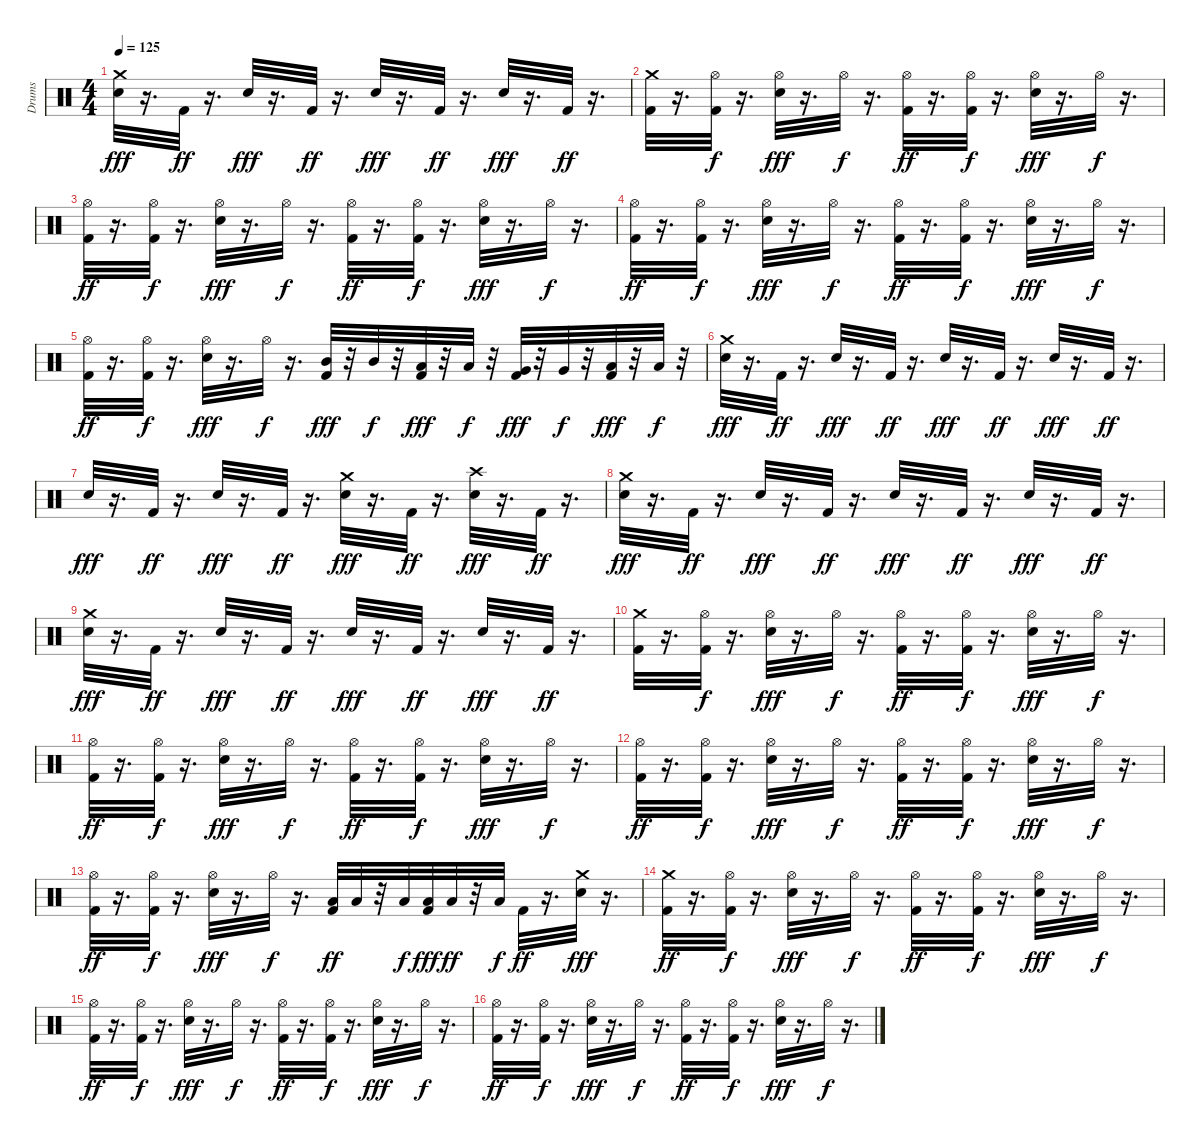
\track ("Drums" "Drums") {instrument percussion}
\staff {score}
\articulation defaults
\ts (4 4)
\tempo 125
\clef neutral
\ks c
("Snare (hit) 2" "Crash medium (hit)").32{dy fff} r.16{d} "Kick (hit) 2".32{dy ff} r.16{d} "Snare (hit) 2".32{dy fff} r.16{d} "Kick (hit) 2".32{dy ff} r.16{d} "Snare (hit) 2".32{dy fff} r.16{d} "Kick (hit) 2".32{dy ff} r.16{d} "Snare (hit) 2".32{dy fff} r.16{d} "Kick (hit) 2".32{dy ff} r.16{d} |
("Crash medium (hit)" "Kick (hit) 2").32 r.16{d} ("Kick (hit) 2" "Hi-Hat (open)").32{dy f} r.16{d} ("Snare (hit) 2" "Hi-Hat (open)").32{dy fff} r.16{d} "Hi-Hat (open)".32{dy f} r.16{d} ("Kick (hit) 2" "Hi-Hat (open)").32{dy ff} r.16{d} ("Kick (hit) 2" "Hi-Hat (open)").32{dy f} r.16{d} ("Snare (hit) 2" "Hi-Hat (open)").32{dy fff} r.16{d} "Hi-Hat (open)".32{dy f} r.16{d} |
("Kick (hit) 2" "Hi-Hat (open)").32{dy ff} r.16{d} ("Kick (hit) 2" "Hi-Hat (open)").32{dy f} r.16{d} ("Snare (hit) 2" "Hi-Hat (open)").32{dy fff} r.16{d} "Hi-Hat (open)".32{dy f} r.16{d} ("Kick (hit) 2" "Hi-Hat (open)").32{dy ff} r.16{d} ("Kick (hit) 2" "Hi-Hat (open)").32{dy f} r.16{d} ("Snare (hit) 2" "Hi-Hat (open)").32{dy fff} r.16{d} "Hi-Hat (open)".32{dy f} r.16{d} |
("Kick (hit) 2" "Hi-Hat (open)").32{dy ff} r.16{d} ("Kick (hit) 2" "Hi-Hat (open)").32{dy f} r.16{d} ("Snare (hit) 2" "Hi-Hat (open)").32{dy fff} r.16{d} "Hi-Hat (open)".32{dy f} r.16{d} ("Kick (hit) 2" "Hi-Hat (open)").32{dy ff} r.16{d} ("Kick (hit) 2" "Hi-Hat (open)").32{dy f} r.16{d} ("Snare (hit) 2" "Hi-Hat (open)").32{dy fff} r.16{d} "Hi-Hat (open)".32{dy f} r.16{d} |
("Kick (hit) 2" "Hi-Hat (open)").32{dy ff} r.16{d} ("Kick (hit) 2" "Hi-Hat (open)").32{dy f} r.16{d} ("Snare (hit) 2" "Hi-Hat (open)").32{dy fff} r.16{d} "Hi-Hat (open)".32{dy f} r.16{d} ("Kick (hit) 2" "Mid Tom (hit)").32{dy fff} r.32 "Mid Tom (hit)".32{dy f} r.32 ("Kick (hit) 2" "Low Tom (hit)").32{dy fff} r.32 "Low Tom (hit)".32{dy f} r.32 ("Kick (hit) 2" "Very Low Tom (hit)").32{dy fff} r.32 "Very Low Tom (hit)".32{dy f} r.32 ("Kick (hit) 2" "Low Floor Tom (hit)").32{dy fff} r.32 "Low Floor Tom (hit)".32{dy f} r.32 |
("Crash medium (hit)" "Snare (hit) 2").32{dy fff} r.16{d} "Kick (hit) 2".32{dy ff} r.16{d} "Snare (hit) 2".32{dy fff} r.16{d} "Kick (hit) 2".32{dy ff} r.16{d} "Snare (hit) 2".32{dy fff} r.16{d} "Kick (hit) 2".32{dy ff} r.16{d} "Snare (hit) 2".32{dy fff} r.16{d} "Kick (hit) 2".32{dy ff} r.16{d} |
"Snare (hit) 2".32{dy fff} r.16{d} "Kick (hit) 2".32{dy ff} r.16{d} "Snare (hit) 2".32{dy fff} r.16{d} "Kick (hit) 2".32{dy ff} r.16{d} ("Crash medium (hit)" "Snare (hit) 2").32{dy fff} r.16{d} "Kick (hit) 2".32{dy ff} r.16{d} ("Crash high (hit)" "Snare (hit) 2").32{dy fff} r.16{d} "Kick (hit) 2".32{dy ff} r.16{d} |
("Snare (hit) 2" "Crash medium (hit)").32{dy fff} r.16{d} "Kick (hit) 2".32{dy ff} r.16{d} "Snare (hit) 2".32{dy fff} r.16{d} "Kick (hit) 2".32{dy ff} r.16{d} "Snare (hit) 2".32{dy fff} r.16{d} "Kick (hit) 2".32{dy ff} r.16{d} "Snare (hit) 2".32{dy fff} r.16{d} "Kick (hit) 2".32{dy ff} r.16{d} |
("Snare (hit) 2" "Crash medium (hit)").32{dy fff} r.16{d} "Kick (hit) 2".32{dy ff} r.16{d} "Snare (hit) 2".32{dy fff} r.16{d} "Kick (hit) 2".32{dy ff} r.16{d} "Snare (hit) 2".32{dy fff} r.16{d} "Kick (hit) 2".32{dy ff} r.16{d} "Snare (hit) 2".32{dy fff} r.16{d} "Kick (hit) 2".32{dy ff} r.16{d} |
("Crash medium (hit)" "Kick (hit) 2").32 r.16{d} ("Kick (hit) 2" "Hi-Hat (open)").32{dy f} r.16{d} ("Snare (hit) 2" "Hi-Hat (open)").32{dy fff} r.16{d} "Hi-Hat (open)".32{dy f} r.16{d} ("Kick (hit) 2" "Hi-Hat (open)").32{dy ff} r.16{d} ("Kick (hit) 2" "Hi-Hat (open)").32{dy f} r.16{d} ("Snare (hit) 2" "Hi-Hat (open)").32{dy fff} r.16{d} "Hi-Hat (open)".32{dy f} r.16{d} |
("Kick (hit) 2" "Hi-Hat (open)").32{dy ff} r.16{d} ("Kick (hit) 2" "Hi-Hat (open)").32{dy f} r.16{d} ("Snare (hit) 2" "Hi-Hat (open)").32{dy fff} r.16{d} "Hi-Hat (open)".32{dy f} r.16{d} ("Kick (hit) 2" "Hi-Hat (open)").32{dy ff} r.16{d} ("Kick (hit) 2" "Hi-Hat (open)").32{dy f} r.16{d} ("Snare (hit) 2" "Hi-Hat (open)").32{dy fff} r.16{d} "Hi-Hat (open)".32{dy f} r.16{d} |
("Kick (hit) 2" "Hi-Hat (open)").32{dy ff} r.16{d} ("Kick (hit) 2" "Hi-Hat (open)").32{dy f} r.16{d} ("Snare (hit) 2" "Hi-Hat (open)").32{dy fff} r.16{d} "Hi-Hat (open)".32{dy f} r.16{d} ("Kick (hit) 2" "Hi-Hat (open)").32{dy ff} r.16{d} ("Kick (hit) 2" "Hi-Hat (open)").32{dy f} r.16{d} ("Snare (hit) 2" "Hi-Hat (open)").32{dy fff} r.16{d} "Hi-Hat (open)".32{dy f} r.16{d} |
("Kick (hit) 2" "Hi-Hat (open)").32{dy ff} r.16{d} ("Kick (hit) 2" "Hi-Hat (open)").32{dy f} r.16{d} ("Snare (hit) 2" "Hi-Hat (open)").32{dy fff} r.16{d} "Hi-Hat (open)".32{dy f} r.16{d} ("Low Tom (hit)" "Kick (hit) 2").32{dy ff} "Low Tom (hit)".32 r.32 "Low Tom (hit)".32{dy f} ("Low Floor Tom (hit)" "Kick (hit) 2").32{dy fff} "Low Floor Tom (hit)".32{dy ff} r.32 "Low Floor Tom (hit)".32{dy f} "Kick (hit) 2".32{dy ff} r.16{d} ("Crash medium (hit)" "Snare (hit) 2").32{dy fff} r.16{d} |
("Crash medium (hit)" "Kick (hit) 2").32{dy ff} r.16{d} ("Kick (hit) 2" "Hi-Hat (open)").32{dy f} r.16{d} ("Snare (hit) 2" "Hi-Hat (open)").32{dy fff} r.16{d} "Hi-Hat (open)".32{dy f} r.16{d} ("Kick (hit) 2" "Hi-Hat (open)").32{dy ff} r.16{d} ("Kick (hit) 2" "Hi-Hat (open)").32{dy f} r.16{d} ("Snare (hit) 2" "Hi-Hat (open)").32{dy fff} r.16{d} "Hi-Hat (open)".32{dy f} r.16{d} |
("Kick (hit) 2" "Hi-Hat (open)").32{dy ff} r.16{d} ("Kick (hit) 2" "Hi-Hat (open)").32{dy f} r.16{d} ("Snare (hit) 2" "Hi-Hat (open)").32{dy fff} r.16{d} "Hi-Hat (open)".32{dy f} r.16{d} ("Kick (hit) 2" "Hi-Hat (open)").32{dy ff} r.16{d} ("Kick (hit) 2" "Hi-Hat (open)").32{dy f} r.16{d} ("Snare (hit) 2" "Hi-Hat (open)").32{dy fff} r.16{d} "Hi-Hat (open)".32{dy f} r.16{d} |
("Kick (hit) 2" "Hi-Hat (open)").32{dy ff} r.16{d} ("Kick (hit) 2" "Hi-Hat (open)").32{dy f} r.16{d} ("Snare (hit) 2" "Hi-Hat (open)").32{dy fff} r.16{d} "Hi-Hat (open)".32{dy f} r.16{d} ("Kick (hit) 2" "Hi-Hat (open)").32{dy ff} r.16{d} ("Kick (hit) 2" "Hi-Hat (open)").32{dy f} r.16{d} ("Snare (hit) 2" "Hi-Hat (open)").32{dy fff} r.16{d} "Hi-Hat (open)".32{dy f} r.16{d}
